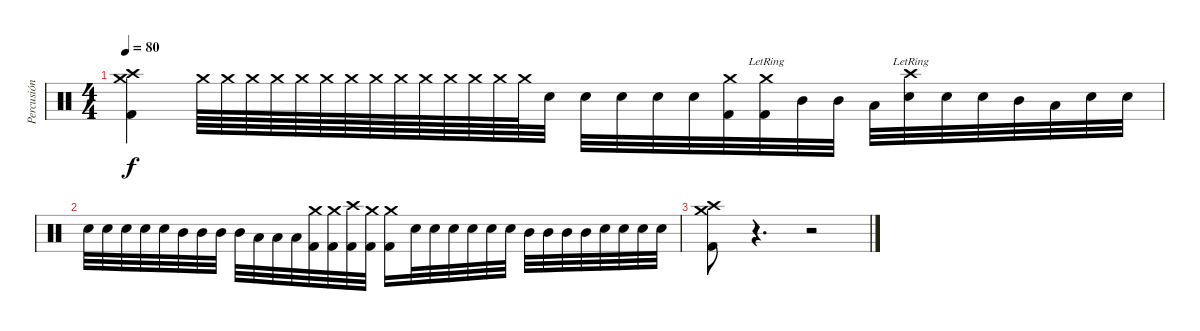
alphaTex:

\track ("Percusión" "Percusión") {instrument percussion}
\staff {score}
\articulation defaults
\ts (4 4)
\tempo 80
\clef neutral
\ks c
("Crash high (hit)" "Crash medium (hit)" "Kick (hit) 2").4{dy f} "Crash medium (hit)".64 "Crash medium (hit)".64 "Crash medium (hit)".64 "Crash medium (hit)".64 "Crash medium (hit)".64 "Crash medium (hit)".64 "Crash medium (hit)".64 "Crash medium (hit)".64 "Crash medium (hit)".64 "Crash medium (hit)".64 "Crash medium (hit)".64 "Crash medium (hit)".64 "Crash medium (hit)".64 "Crash medium (hit)".64 "Electric Snare (hit)".32 "Electric Snare (hit)".32 "Electric Snare (hit)".32 "Electric Snare (hit)".32 "Electric Snare (hit)".32 ("Crash medium (hit)" "Kick (hit) 2").32 ("Crash medium (hit)"{lr} "Kick (hit) 2").32 "Mid Tom (hit)".32 "Mid Tom (hit)".32 "Low Tom (hit)".32 ("Crash high (hit)"{lr} "Electric Snare (hit)").32 "Electric Snare (hit)".32 "Electric Snare (hit)".32 "Mid Tom (hit)".32 "Low Tom (hit)".32 "Electric Snare (hit)".32 "Electric Snare (hit)".32 |
"Electric Snare (hit)".32 "Electric Snare (hit)".32 "Electric Snare (hit)".32 "Electric Snare (hit)".32 "Electric Snare (hit)".32 "Mid Tom (hit)".32 "Mid Tom (hit)".32 "Mid Tom (hit)".32 "Mid Tom (hit)".32 "Low Tom (hit)".32 "Low Tom (hit)".32 "Low Tom (hit)".32 ("Crash medium (hit)" "Kick (hit) 2").32 ("Crash medium (hit)" "Kick (hit) 2").32 ("Crash high (hit)" "Kick (hit) 2").32 ("Crash medium (hit)" "Kick (hit) 2").32 ("Crash medium (hit)" "Kick (hit) 2").16 "Electric Snare (hit)".32 "Electric Snare (hit)".32 "Electric Snare (hit)".32 "Electric Snare (hit)".32 "Electric Snare (hit)".32 "Electric Snare (hit)".32 "Mid Tom (hit)".32 "Mid Tom (hit)".32 "Mid Tom (hit)".32 "Mid Tom (hit)".32 "Electric Snare (hit)".32 "Electric Snare (hit)".32 "Electric Snare (hit)".32 "Electric Snare (hit)".32 |
("Crash high (hit)" "Crash medium (hit)" "Kick (hit) 2").8 r.4{d} r.2
